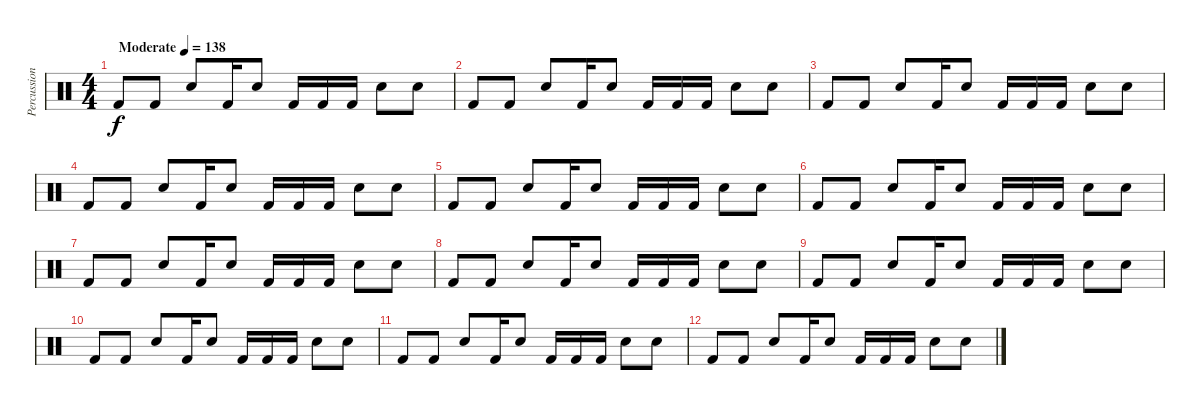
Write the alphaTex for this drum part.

\track ("Percussion" "Percussion") {instrument percussion}
\staff {score}
\articulation defaults
\ts (4 4)
\tempo (138 "Moderate")
\clef neutral
\ks c "Kick (hit) 2".8{dy f} "Kick (hit) 2".8 "Electric Snare (hit)".8 "Kick (hit) 2".16 "Electric Snare (hit)".8 "Kick (hit) 2".16 "Kick (hit) 2".16 "Kick (hit) 2".16 "Electric Snare (hit)".8 "Electric Snare (hit)".8
|
"Kick (hit) 2".8 "Kick (hit) 2".8 "Electric Snare (hit)".8 "Kick (hit) 2".16 "Electric Snare (hit)".8 "Kick (hit) 2".16 "Kick (hit) 2".16 "Kick (hit) 2".16 "Electric Snare (hit)".8 "Electric Snare (hit)".8 |
"Kick (hit) 2".8 "Kick (hit) 2".8 "Electric Snare (hit)".8 "Kick (hit) 2".16 "Electric Snare (hit)".8 "Kick (hit) 2".16 "Kick (hit) 2".16 "Kick (hit) 2".16 "Electric Snare (hit)".8 "Electric Snare (hit)".8 |
"Kick (hit) 2".8 "Kick (hit) 2".8 "Electric Snare (hit)".8 "Kick (hit) 2".16 "Electric Snare (hit)".8 "Kick (hit) 2".16 "Kick (hit) 2".16 "Kick (hit) 2".16 "Electric Snare (hit)".8 "Electric Snare (hit)".8 |
"Kick (hit) 2".8 "Kick (hit) 2".8 "Electric Snare (hit)".8 "Kick (hit) 2".16 "Electric Snare (hit)".8 "Kick (hit) 2".16 "Kick (hit) 2".16 "Kick (hit) 2".16 "Electric Snare (hit)".8 "Electric Snare (hit)".8 |
"Kick (hit) 2".8 "Kick (hit) 2".8 "Electric Snare (hit)".8 "Kick (hit) 2".16 "Electric Snare (hit)".8 "Kick (hit) 2".16 "Kick (hit) 2".16 "Kick (hit) 2".16 "Electric Snare (hit)".8 "Electric Snare (hit)".8 |
"Kick (hit) 2".8 "Kick (hit) 2".8 "Electric Snare (hit)".8 "Kick (hit) 2".16 "Electric Snare (hit)".8 "Kick (hit) 2".16 "Kick (hit) 2".16 "Kick (hit) 2".16 "Electric Snare (hit)".8 "Electric Snare (hit)".8 |
"Kick (hit) 2".8 "Kick (hit) 2".8 "Electric Snare (hit)".8 "Kick (hit) 2".16 "Electric Snare (hit)".8 "Kick (hit) 2".16 "Kick (hit) 2".16 "Kick (hit) 2".16 "Electric Snare (hit)".8 "Electric Snare (hit)".8 |
"Kick (hit) 2".8 "Kick (hit) 2".8 "Electric Snare (hit)".8 "Kick (hit) 2".16 "Electric Snare (hit)".8 "Kick (hit) 2".16 "Kick (hit) 2".16 "Kick (hit) 2".16 "Electric Snare (hit)".8 "Electric Snare (hit)".8 |
"Kick (hit) 2".8 "Kick (hit) 2".8 "Electric Snare (hit)".8 "Kick (hit) 2".16 "Electric Snare (hit)".8 "Kick (hit) 2".16 "Kick (hit) 2".16 "Kick (hit) 2".16 "Electric Snare (hit)".8 "Electric Snare (hit)".8 |
"Kick (hit) 2".8 "Kick (hit) 2".8 "Electric Snare (hit)".8 "Kick (hit) 2".16 "Electric Snare (hit)".8 "Kick (hit) 2".16 "Kick (hit) 2".16 "Kick (hit) 2".16 "Electric Snare (hit)".8 "Electric Snare (hit)".8 |
"Kick (hit) 2".8 "Kick (hit) 2".8 "Electric Snare (hit)".8 "Kick (hit) 2".16 "Electric Snare (hit)".8 "Kick (hit) 2".16 "Kick (hit) 2".16 "Kick (hit) 2".16 "Electric Snare (hit)".8 "Electric Snare (hit)".8
